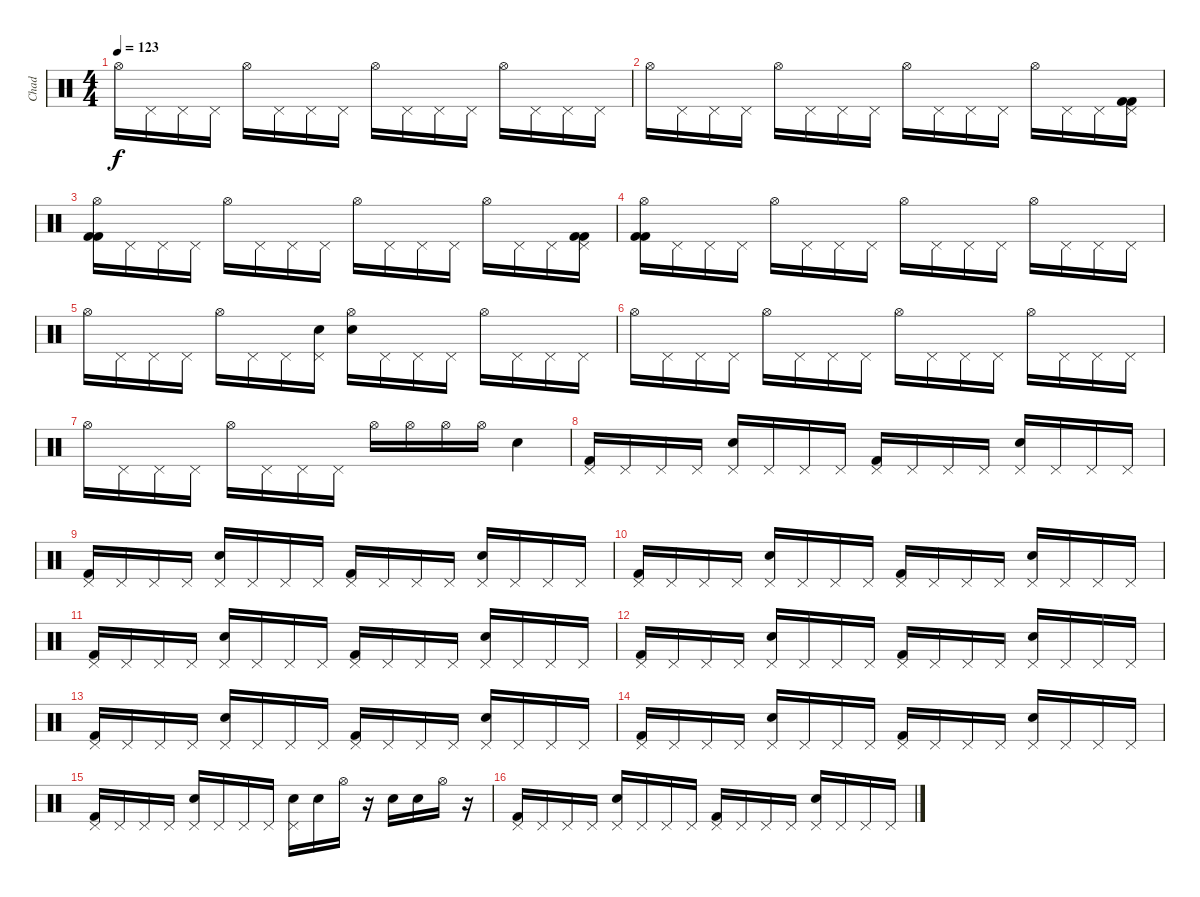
\track ("Chad" "Chad") {instrument percussion}
\staff {score}
\articulation defaults
\ts (4 4)
\tempo 123
\clef neutral
\ks c "Hi-Hat (open)".16{dy f} "Pedal Hi-Hat (hit)".16 "Pedal Hi-Hat (hit)".16 "Pedal Hi-Hat (hit)".16 "Hi-Hat (open)".16 "Pedal Hi-Hat (hit)".16 "Pedal Hi-Hat (hit)".16 "Pedal Hi-Hat (hit)".16 "Hi-Hat (open)".16 "Pedal Hi-Hat (hit)".16 "Pedal Hi-Hat (hit)".16 "Pedal Hi-Hat (hit)".16 "Hi-Hat (open)".16 "Pedal Hi-Hat (hit)".16 "Pedal Hi-Hat (hit)".16 "Pedal Hi-Hat (hit)".16
|
"Hi-Hat (open)".16 "Pedal Hi-Hat (hit)".16 "Pedal Hi-Hat (hit)".16 "Pedal Hi-Hat (hit)".16 "Hi-Hat (open)".16 "Pedal Hi-Hat (hit)".16 "Pedal Hi-Hat (hit)".16 "Pedal Hi-Hat (hit)".16 "Hi-Hat (open)".16 "Pedal Hi-Hat (hit)".16 "Pedal Hi-Hat (hit)".16 "Pedal Hi-Hat (hit)".16 "Hi-Hat (open)".16 "Pedal Hi-Hat (hit)".16 "Pedal Hi-Hat (hit)".16 ("Pedal Hi-Hat (hit)" "Kick (hit) 2" "Kick (hit) 2").16 |
("Hi-Hat (open)" "Kick (hit) 2" "Kick (hit) 2").16 "Pedal Hi-Hat (hit)".16 "Pedal Hi-Hat (hit)".16 "Pedal Hi-Hat (hit)".16 "Hi-Hat (open)".16 "Pedal Hi-Hat (hit)".16 "Pedal Hi-Hat (hit)".16 "Pedal Hi-Hat (hit)".16 "Hi-Hat (open)".16 "Pedal Hi-Hat (hit)".16 "Pedal Hi-Hat (hit)".16 "Pedal Hi-Hat (hit)".16 "Hi-Hat (open)".16 "Pedal Hi-Hat (hit)".16 "Pedal Hi-Hat (hit)".16 ("Pedal Hi-Hat (hit)" "Kick (hit) 2" "Kick (hit) 2").16 |
("Hi-Hat (open)" "Kick (hit) 2" "Kick (hit) 2").16 "Pedal Hi-Hat (hit)".16 "Pedal Hi-Hat (hit)".16 "Pedal Hi-Hat (hit)".16 "Hi-Hat (open)".16 "Pedal Hi-Hat (hit)".16 "Pedal Hi-Hat (hit)".16 "Pedal Hi-Hat (hit)".16 "Hi-Hat (open)".16 "Pedal Hi-Hat (hit)".16 "Pedal Hi-Hat (hit)".16 "Pedal Hi-Hat (hit)".16 "Hi-Hat (open)".16 "Pedal Hi-Hat (hit)".16 "Pedal Hi-Hat (hit)".16 "Pedal Hi-Hat (hit)".16 |
"Hi-Hat (open)".16 "Pedal Hi-Hat (hit)".16 "Pedal Hi-Hat (hit)".16 "Pedal Hi-Hat (hit)".16 "Hi-Hat (open)".16 "Pedal Hi-Hat (hit)".16 "Pedal Hi-Hat (hit)".16 ("Pedal Hi-Hat (hit)" "Electric Snare (hit)").16 ("Hi-Hat (open)" "Electric Snare (hit)").16 "Pedal Hi-Hat (hit)".16 "Pedal Hi-Hat (hit)".16 "Pedal Hi-Hat (hit)".16 "Hi-Hat (open)".16 "Pedal Hi-Hat (hit)".16 "Pedal Hi-Hat (hit)".16 "Pedal Hi-Hat (hit)".16 |
"Hi-Hat (open)".16 "Pedal Hi-Hat (hit)".16 "Pedal Hi-Hat (hit)".16 "Pedal Hi-Hat (hit)".16 "Hi-Hat (open)".16 "Pedal Hi-Hat (hit)".16 "Pedal Hi-Hat (hit)".16 "Pedal Hi-Hat (hit)".16 "Hi-Hat (open)".16 "Pedal Hi-Hat (hit)".16 "Pedal Hi-Hat (hit)".16 "Pedal Hi-Hat (hit)".16 "Hi-Hat (open)".16 "Pedal Hi-Hat (hit)".16 "Pedal Hi-Hat (hit)".16 "Pedal Hi-Hat (hit)".16 |
"Hi-Hat (open)".16 "Pedal Hi-Hat (hit)".16 "Pedal Hi-Hat (hit)".16 "Pedal Hi-Hat (hit)".16 "Hi-Hat (open)".16 "Pedal Hi-Hat (hit)".16 "Pedal Hi-Hat (hit)".16 "Pedal Hi-Hat (hit)".16 "Hi-Hat (open)".16 "Hi-Hat (open)".16 "Hi-Hat (open)".16 "Hi-Hat (open)".16 "Electric Snare (hit)".4 |
("Pedal Hi-Hat (hit)" "Kick (hit) 2").16 "Pedal Hi-Hat (hit)".16 "Pedal Hi-Hat (hit)".16 "Pedal Hi-Hat (hit)".16 ("Pedal Hi-Hat (hit)" "Electric Snare (hit)").16 "Pedal Hi-Hat (hit)".16 "Pedal Hi-Hat (hit)".16 "Pedal Hi-Hat (hit)".16 ("Pedal Hi-Hat (hit)" "Kick (hit) 2").16 "Pedal Hi-Hat (hit)".16 "Pedal Hi-Hat (hit)".16 "Pedal Hi-Hat (hit)".16 ("Pedal Hi-Hat (hit)" "Electric Snare (hit)").16 "Pedal Hi-Hat (hit)".16 "Pedal Hi-Hat (hit)".16 "Pedal Hi-Hat (hit)".16 |
("Pedal Hi-Hat (hit)" "Kick (hit) 2").16 "Pedal Hi-Hat (hit)".16 "Pedal Hi-Hat (hit)".16 "Pedal Hi-Hat (hit)".16 ("Pedal Hi-Hat (hit)" "Electric Snare (hit)").16 "Pedal Hi-Hat (hit)".16 "Pedal Hi-Hat (hit)".16 "Pedal Hi-Hat (hit)".16 ("Pedal Hi-Hat (hit)" "Kick (hit) 2").16 "Pedal Hi-Hat (hit)".16 "Pedal Hi-Hat (hit)".16 "Pedal Hi-Hat (hit)".16 ("Pedal Hi-Hat (hit)" "Electric Snare (hit)").16 "Pedal Hi-Hat (hit)".16 "Pedal Hi-Hat (hit)".16 "Pedal Hi-Hat (hit)".16 |
("Pedal Hi-Hat (hit)" "Kick (hit) 2").16 "Pedal Hi-Hat (hit)".16 "Pedal Hi-Hat (hit)".16 "Pedal Hi-Hat (hit)".16 ("Pedal Hi-Hat (hit)" "Electric Snare (hit)").16 "Pedal Hi-Hat (hit)".16 "Pedal Hi-Hat (hit)".16 "Pedal Hi-Hat (hit)".16 ("Pedal Hi-Hat (hit)" "Kick (hit) 2").16 "Pedal Hi-Hat (hit)".16 "Pedal Hi-Hat (hit)".16 "Pedal Hi-Hat (hit)".16 ("Pedal Hi-Hat (hit)" "Electric Snare (hit)").16 "Pedal Hi-Hat (hit)".16 "Pedal Hi-Hat (hit)".16 "Pedal Hi-Hat (hit)".16 |
("Pedal Hi-Hat (hit)" "Kick (hit) 2").16 "Pedal Hi-Hat (hit)".16 "Pedal Hi-Hat (hit)".16 "Pedal Hi-Hat (hit)".16 ("Pedal Hi-Hat (hit)" "Electric Snare (hit)").16 "Pedal Hi-Hat (hit)".16 "Pedal Hi-Hat (hit)".16 "Pedal Hi-Hat (hit)".16 ("Pedal Hi-Hat (hit)" "Kick (hit) 2").16 "Pedal Hi-Hat (hit)".16 "Pedal Hi-Hat (hit)".16 "Pedal Hi-Hat (hit)".16 ("Pedal Hi-Hat (hit)" "Electric Snare (hit)").16 "Pedal Hi-Hat (hit)".16 "Pedal Hi-Hat (hit)".16 "Pedal Hi-Hat (hit)".16 |
("Pedal Hi-Hat (hit)" "Kick (hit) 2").16 "Pedal Hi-Hat (hit)".16 "Pedal Hi-Hat (hit)".16 "Pedal Hi-Hat (hit)".16 ("Pedal Hi-Hat (hit)" "Electric Snare (hit)").16 "Pedal Hi-Hat (hit)".16 "Pedal Hi-Hat (hit)".16 "Pedal Hi-Hat (hit)".16 ("Pedal Hi-Hat (hit)" "Kick (hit) 2").16 "Pedal Hi-Hat (hit)".16 "Pedal Hi-Hat (hit)".16 "Pedal Hi-Hat (hit)".16 ("Pedal Hi-Hat (hit)" "Electric Snare (hit)").16 "Pedal Hi-Hat (hit)".16 "Pedal Hi-Hat (hit)".16 "Pedal Hi-Hat (hit)".16 |
("Pedal Hi-Hat (hit)" "Kick (hit) 2").16 "Pedal Hi-Hat (hit)".16 "Pedal Hi-Hat (hit)".16 "Pedal Hi-Hat (hit)".16 ("Pedal Hi-Hat (hit)" "Electric Snare (hit)").16 "Pedal Hi-Hat (hit)".16 "Pedal Hi-Hat (hit)".16 "Pedal Hi-Hat (hit)".16 ("Pedal Hi-Hat (hit)" "Kick (hit) 2").16 "Pedal Hi-Hat (hit)".16 "Pedal Hi-Hat (hit)".16 "Pedal Hi-Hat (hit)".16 ("Pedal Hi-Hat (hit)" "Electric Snare (hit)").16 "Pedal Hi-Hat (hit)".16 "Pedal Hi-Hat (hit)".16 "Pedal Hi-Hat (hit)".16 |
("Pedal Hi-Hat (hit)" "Kick (hit) 2").16 "Pedal Hi-Hat (hit)".16 "Pedal Hi-Hat (hit)".16 "Pedal Hi-Hat (hit)".16 ("Pedal Hi-Hat (hit)" "Electric Snare (hit)").16 "Pedal Hi-Hat (hit)".16 "Pedal Hi-Hat (hit)".16 "Pedal Hi-Hat (hit)".16 ("Pedal Hi-Hat (hit)" "Kick (hit) 2").16 "Pedal Hi-Hat (hit)".16 "Pedal Hi-Hat (hit)".16 "Pedal Hi-Hat (hit)".16 ("Pedal Hi-Hat (hit)" "Electric Snare (hit)").16 "Pedal Hi-Hat (hit)".16 "Pedal Hi-Hat (hit)".16 "Pedal Hi-Hat (hit)".16 |
("Pedal Hi-Hat (hit)" "Kick (hit) 2").16 "Pedal Hi-Hat (hit)".16 "Pedal Hi-Hat (hit)".16 "Pedal Hi-Hat (hit)".16 ("Pedal Hi-Hat (hit)" "Electric Snare (hit)").16 "Pedal Hi-Hat (hit)".16 "Pedal Hi-Hat (hit)".16 "Pedal Hi-Hat (hit)".16 ("Pedal Hi-Hat (hit)" "Electric Snare (hit)").16 "Electric Snare (hit)".16 "Hi-Hat (open)".16 r.16 "Electric Snare (hit)".16 "Electric Snare (hit)".16 "Hi-Hat (open)".16 r.16 |
("Pedal Hi-Hat (hit)" "Kick (hit) 2").16 "Pedal Hi-Hat (hit)".16 "Pedal Hi-Hat (hit)".16 "Pedal Hi-Hat (hit)".16 ("Pedal Hi-Hat (hit)" "Electric Snare (hit)").16 "Pedal Hi-Hat (hit)".16 "Pedal Hi-Hat (hit)".16 "Pedal Hi-Hat (hit)".16 ("Pedal Hi-Hat (hit)" "Kick (hit) 2").16 "Pedal Hi-Hat (hit)".16 "Pedal Hi-Hat (hit)".16 "Pedal Hi-Hat (hit)".16 ("Pedal Hi-Hat (hit)" "Electric Snare (hit)").16 "Pedal Hi-Hat (hit)".16 "Pedal Hi-Hat (hit)".16 "Pedal Hi-Hat (hit)".16
